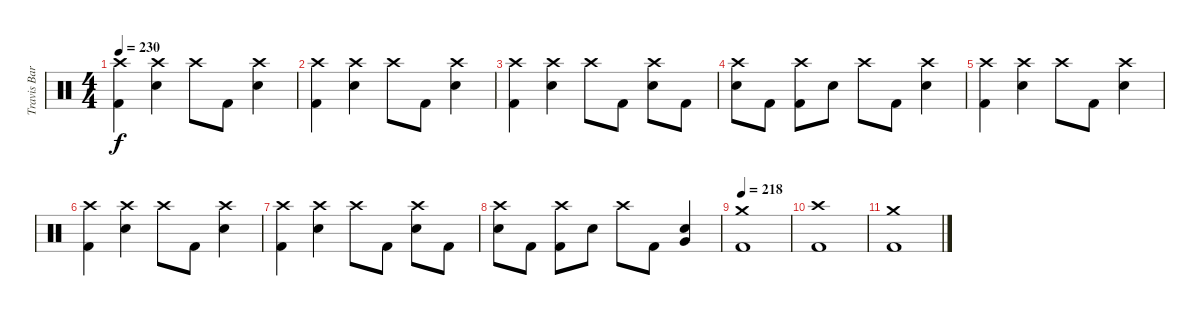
\track ("Travis Barker - Drums" "Travis Bar") {instrument percussion}
\staff {score}
\articulation defaults
\ts (4 4)
\tempo 230
\clef neutral
\ks c
("Crash high (hit)" "Kick (hit) 2").4{dy f} ("Crash high (hit)" "Electric Snare (hit)").4 "Crash high (hit)".8 "Kick (hit) 2".8 ("Crash high (hit)" "Electric Snare (hit)").4 |
("Crash high (hit)" "Kick (hit) 2").4 ("Crash high (hit)" "Electric Snare (hit)").4 "Crash high (hit)".8 "Kick (hit) 2".8 ("Crash high (hit)" "Electric Snare (hit)").4 |
("Crash high (hit)" "Kick (hit) 2").4 ("Crash high (hit)" "Electric Snare (hit)").4 "Crash high (hit)".8 "Kick (hit) 2".8 ("Crash high (hit)" "Electric Snare (hit)").8 "Kick (hit) 2".8 |
("Crash high (hit)" "Electric Snare (hit)").8 "Kick (hit) 2".8 ("Crash high (hit)" "Kick (hit) 2").8 "Electric Snare (hit)".8 "Crash high (hit)".8 "Kick (hit) 2".8 ("Crash high (hit)" "Electric Snare (hit)").4 |
("Crash high (hit)" "Kick (hit) 2").4 ("Crash high (hit)" "Electric Snare (hit)").4 "Crash high (hit)".8 "Kick (hit) 2".8 ("Crash high (hit)" "Electric Snare (hit)").4 |
("Crash high (hit)" "Kick (hit) 2").4 ("Crash high (hit)" "Electric Snare (hit)").4 "Crash high (hit)".8 "Kick (hit) 2".8 ("Crash high (hit)" "Electric Snare (hit)").4 |
("Crash high (hit)" "Kick (hit) 2").4 ("Crash high (hit)" "Electric Snare (hit)").4 "Crash high (hit)".8 "Kick (hit) 2".8 ("Crash high (hit)" "Electric Snare (hit)").8 "Kick (hit) 2".8 |
("Crash high (hit)" "Electric Snare (hit)").8 "Kick (hit) 2".8 ("Crash high (hit)" "Kick (hit) 2").8 "Electric Snare (hit)".8 "Crash high (hit)".8 "Kick (hit) 2".8 ("Very Low Tom (hit)" "Electric Snare (hit)").4 |
\tempo 218
("Crash medium (hit)" "Kick (hit) 2").1 |
("Crash high (hit)" "Kick (hit) 2").1 |
("Crash medium (hit)" "Kick (hit) 2").1
